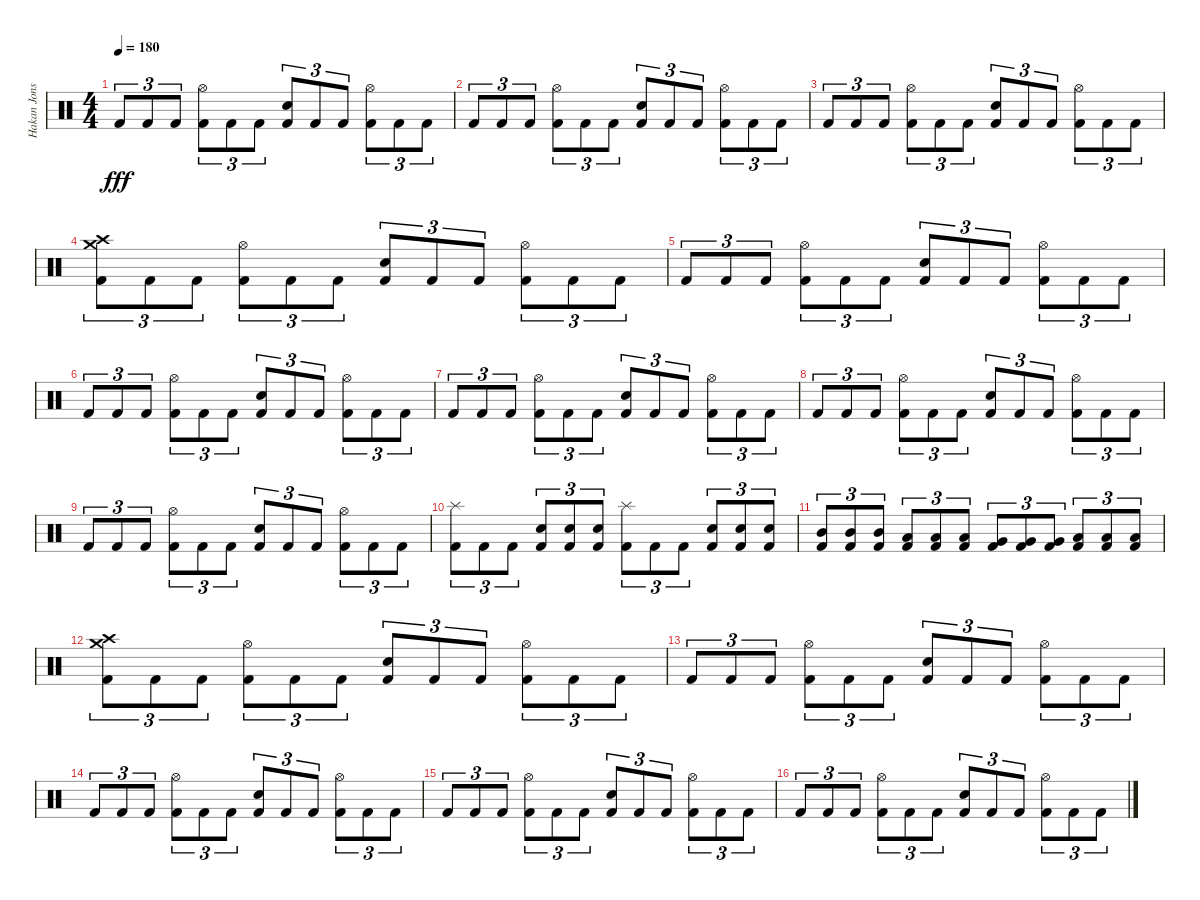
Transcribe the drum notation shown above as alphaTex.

\track ("Hakan Jonsson" "Hakan Jons") {instrument percussion}
\staff {score}
\articulation defaults
\ts (4 4)
\tempo 180
\clef neutral
\ks c "Kick (hit) 2".8{tu (3 2) dy fff} "Kick (hit) 2".8{tu (3 2)} "Kick (hit) 2".8{tu (3 2)}
("Hi-Hat (open)" "Kick (hit) 2").8{tu (3 2)} "Kick (hit) 2".8{tu (3 2)} "Kick (hit) 2".8{tu (3 2)} ("Electric Snare (hit)" "Kick (hit) 2").8{tu (3 2)} "Kick (hit) 2".8{tu (3 2)} "Kick (hit) 2".8{tu (3 2)} ("Hi-Hat (open)" "Kick (hit) 2").8{tu (3 2)} "Kick (hit) 2".8{tu (3 2)} "Kick (hit) 2".8{tu (3 2)} |
"Kick (hit) 2".8{tu (3 2)} "Kick (hit) 2".8{tu (3 2)} "Kick (hit) 2".8{tu (3 2)} ("Hi-Hat (open)" "Kick (hit) 2").8{tu (3 2)} "Kick (hit) 2".8{tu (3 2)} "Kick (hit) 2".8{tu (3 2)} ("Electric Snare (hit)" "Kick (hit) 2").8{tu (3 2)} "Kick (hit) 2".8{tu (3 2)} "Kick (hit) 2".8{tu (3 2)} ("Hi-Hat (open)" "Kick (hit) 2").8{tu (3 2)} "Kick (hit) 2".8{tu (3 2)} "Kick (hit) 2".8{tu (3 2)} |
"Kick (hit) 2".8{tu (3 2)} "Kick (hit) 2".8{tu (3 2)} "Kick (hit) 2".8{tu (3 2)} ("Hi-Hat (open)" "Kick (hit) 2").8{tu (3 2)} "Kick (hit) 2".8{tu (3 2)} "Kick (hit) 2".8{tu (3 2)} ("Electric Snare (hit)" "Kick (hit) 2").8{tu (3 2)} "Kick (hit) 2".8{tu (3 2)} "Kick (hit) 2".8{tu (3 2)} ("Hi-Hat (open)" "Kick (hit) 2").8{tu (3 2)} "Kick (hit) 2".8{tu (3 2)} "Kick (hit) 2".8{tu (3 2)} |
("Crash high (hit)" "Crash medium (hit)" "Kick (hit) 2").8{tu (3 2)} "Kick (hit) 2".8{tu (3 2)} "Kick (hit) 2".8{tu (3 2)} ("Hi-Hat (open)" "Kick (hit) 2").8{tu (3 2)} "Kick (hit) 2".8{tu (3 2)} "Kick (hit) 2".8{tu (3 2)} ("Electric Snare (hit)" "Kick (hit) 2").8{tu (3 2)} "Kick (hit) 2".8{tu (3 2)} "Kick (hit) 2".8{tu (3 2)} ("Hi-Hat (open)" "Kick (hit) 2").8{tu (3 2)} "Kick (hit) 2".8{tu (3 2)} "Kick (hit) 2".8{tu (3 2)} |
"Kick (hit) 2".8{tu (3 2)} "Kick (hit) 2".8{tu (3 2)} "Kick (hit) 2".8{tu (3 2)} ("Hi-Hat (open)" "Kick (hit) 2").8{tu (3 2)} "Kick (hit) 2".8{tu (3 2)} "Kick (hit) 2".8{tu (3 2)} ("Electric Snare (hit)" "Kick (hit) 2").8{tu (3 2)} "Kick (hit) 2".8{tu (3 2)} "Kick (hit) 2".8{tu (3 2)} ("Hi-Hat (open)" "Kick (hit) 2").8{tu (3 2)} "Kick (hit) 2".8{tu (3 2)} "Kick (hit) 2".8{tu (3 2)} |
"Kick (hit) 2".8{tu (3 2)} "Kick (hit) 2".8{tu (3 2)} "Kick (hit) 2".8{tu (3 2)} ("Hi-Hat (open)" "Kick (hit) 2").8{tu (3 2)} "Kick (hit) 2".8{tu (3 2)} "Kick (hit) 2".8{tu (3 2)} ("Electric Snare (hit)" "Kick (hit) 2").8{tu (3 2)} "Kick (hit) 2".8{tu (3 2)} "Kick (hit) 2".8{tu (3 2)} ("Hi-Hat (open)" "Kick (hit) 2").8{tu (3 2)} "Kick (hit) 2".8{tu (3 2)} "Kick (hit) 2".8{tu (3 2)} |
"Kick (hit) 2".8{tu (3 2)} "Kick (hit) 2".8{tu (3 2)} "Kick (hit) 2".8{tu (3 2)} ("Hi-Hat (open)" "Kick (hit) 2").8{tu (3 2)} "Kick (hit) 2".8{tu (3 2)} "Kick (hit) 2".8{tu (3 2)} ("Electric Snare (hit)" "Kick (hit) 2").8{tu (3 2)} "Kick (hit) 2".8{tu (3 2)} "Kick (hit) 2".8{tu (3 2)} ("Hi-Hat (open)" "Kick (hit) 2").8{tu (3 2)} "Kick (hit) 2".8{tu (3 2)} "Kick (hit) 2".8{tu (3 2)} |
"Kick (hit) 2".8{tu (3 2)} "Kick (hit) 2".8{tu (3 2)} "Kick (hit) 2".8{tu (3 2)} ("Hi-Hat (open)" "Kick (hit) 2").8{tu (3 2)} "Kick (hit) 2".8{tu (3 2)} "Kick (hit) 2".8{tu (3 2)} ("Electric Snare (hit)" "Kick (hit) 2").8{tu (3 2)} "Kick (hit) 2".8{tu (3 2)} "Kick (hit) 2".8{tu (3 2)} ("Hi-Hat (open)" "Kick (hit) 2").8{tu (3 2)} "Kick (hit) 2".8{tu (3 2)} "Kick (hit) 2".8{tu (3 2)} |
"Kick (hit) 2".8{tu (3 2)} "Kick (hit) 2".8{tu (3 2)} "Kick (hit) 2".8{tu (3 2)} ("Hi-Hat (open)" "Kick (hit) 2").8{tu (3 2)} "Kick (hit) 2".8{tu (3 2)} "Kick (hit) 2".8{tu (3 2)} ("Electric Snare (hit)" "Kick (hit) 2").8{tu (3 2)} "Kick (hit) 2".8{tu (3 2)} "Kick (hit) 2".8{tu (3 2)} ("Hi-Hat (open)" "Kick (hit) 2").8{tu (3 2)} "Kick (hit) 2".8{tu (3 2)} "Kick (hit) 2".8{tu (3 2)} |
("Splash (hit)" "Kick (hit) 2").8{tu (3 2)} "Kick (hit) 2".8{tu (3 2)} "Kick (hit) 2".8{tu (3 2)} ("Electric Snare (hit)" "Kick (hit) 2").8{tu (3 2)} ("Electric Snare (hit)" "Kick (hit) 2").8{tu (3 2)} ("Electric Snare (hit)" "Kick (hit) 2").8{tu (3 2)} ("Splash (hit)" "Kick (hit) 2").8{tu (3 2)} "Kick (hit) 2".8{tu (3 2)} "Kick (hit) 2".8{tu (3 2)} ("Electric Snare (hit)" "Kick (hit) 2").8{tu (3 2)} ("Electric Snare (hit)" "Kick (hit) 2").8{tu (3 2)} ("Electric Snare (hit)" "Kick (hit) 2").8{tu (3 2)} |
("Mid Tom (hit)" "Kick (hit) 2").8{tu (3 2)} ("Mid Tom (hit)" "Kick (hit) 2").8{tu (3 2)} ("Mid Tom (hit)" "Kick (hit) 2").8{tu (3 2)} ("Low Tom (hit)" "Kick (hit) 2").8{tu (3 2)} ("Low Tom (hit)" "Kick (hit) 2").8{tu (3 2)} ("Low Tom (hit)" "Kick (hit) 2").8{tu (3 2)} ("Very Low Tom (hit)" "Kick (hit) 2").8{tu (3 2)} ("Very Low Tom (hit)" "Kick (hit) 2").8{tu (3 2)} ("Very Low Tom (hit)" "Kick (hit) 2").8{tu (3 2)} ("Low Floor Tom (hit)" "Kick (hit) 2").8{tu (3 2)} ("Low Floor Tom (hit)" "Kick (hit) 2").8{tu (3 2)} ("Low Floor Tom (hit)" "Kick (hit) 2").8{tu (3 2)} |
("Crash high (hit)" "Crash medium (hit)" "Kick (hit) 2").8{tu (3 2)} "Kick (hit) 2".8{tu (3 2)} "Kick (hit) 2".8{tu (3 2)} ("Hi-Hat (open)" "Kick (hit) 2").8{tu (3 2)} "Kick (hit) 2".8{tu (3 2)} "Kick (hit) 2".8{tu (3 2)} ("Electric Snare (hit)" "Kick (hit) 2").8{tu (3 2)} "Kick (hit) 2".8{tu (3 2)} "Kick (hit) 2".8{tu (3 2)} ("Hi-Hat (open)" "Kick (hit) 2").8{tu (3 2)} "Kick (hit) 2".8{tu (3 2)} "Kick (hit) 2".8{tu (3 2)} |
"Kick (hit) 2".8{tu (3 2)} "Kick (hit) 2".8{tu (3 2)} "Kick (hit) 2".8{tu (3 2)} ("Hi-Hat (open)" "Kick (hit) 2").8{tu (3 2)} "Kick (hit) 2".8{tu (3 2)} "Kick (hit) 2".8{tu (3 2)} ("Electric Snare (hit)" "Kick (hit) 2").8{tu (3 2)} "Kick (hit) 2".8{tu (3 2)} "Kick (hit) 2".8{tu (3 2)} ("Hi-Hat (open)" "Kick (hit) 2").8{tu (3 2)} "Kick (hit) 2".8{tu (3 2)} "Kick (hit) 2".8{tu (3 2)} |
"Kick (hit) 2".8{tu (3 2)} "Kick (hit) 2".8{tu (3 2)} "Kick (hit) 2".8{tu (3 2)} ("Hi-Hat (open)" "Kick (hit) 2").8{tu (3 2)} "Kick (hit) 2".8{tu (3 2)} "Kick (hit) 2".8{tu (3 2)} ("Electric Snare (hit)" "Kick (hit) 2").8{tu (3 2)} "Kick (hit) 2".8{tu (3 2)} "Kick (hit) 2".8{tu (3 2)} ("Hi-Hat (open)" "Kick (hit) 2").8{tu (3 2)} "Kick (hit) 2".8{tu (3 2)} "Kick (hit) 2".8{tu (3 2)} |
"Kick (hit) 2".8{tu (3 2)} "Kick (hit) 2".8{tu (3 2)} "Kick (hit) 2".8{tu (3 2)} ("Hi-Hat (open)" "Kick (hit) 2").8{tu (3 2)} "Kick (hit) 2".8{tu (3 2)} "Kick (hit) 2".8{tu (3 2)} ("Electric Snare (hit)" "Kick (hit) 2").8{tu (3 2)} "Kick (hit) 2".8{tu (3 2)} "Kick (hit) 2".8{tu (3 2)} ("Hi-Hat (open)" "Kick (hit) 2").8{tu (3 2)} "Kick (hit) 2".8{tu (3 2)} "Kick (hit) 2".8{tu (3 2)} |
"Kick (hit) 2".8{tu (3 2)} "Kick (hit) 2".8{tu (3 2)} "Kick (hit) 2".8{tu (3 2)} ("Hi-Hat (open)" "Kick (hit) 2").8{tu (3 2)} "Kick (hit) 2".8{tu (3 2)} "Kick (hit) 2".8{tu (3 2)} ("Electric Snare (hit)" "Kick (hit) 2").8{tu (3 2)} "Kick (hit) 2".8{tu (3 2)} "Kick (hit) 2".8{tu (3 2)} ("Hi-Hat (open)" "Kick (hit) 2").8{tu (3 2)} "Kick (hit) 2".8{tu (3 2)} "Kick (hit) 2".8{tu (3 2)}
